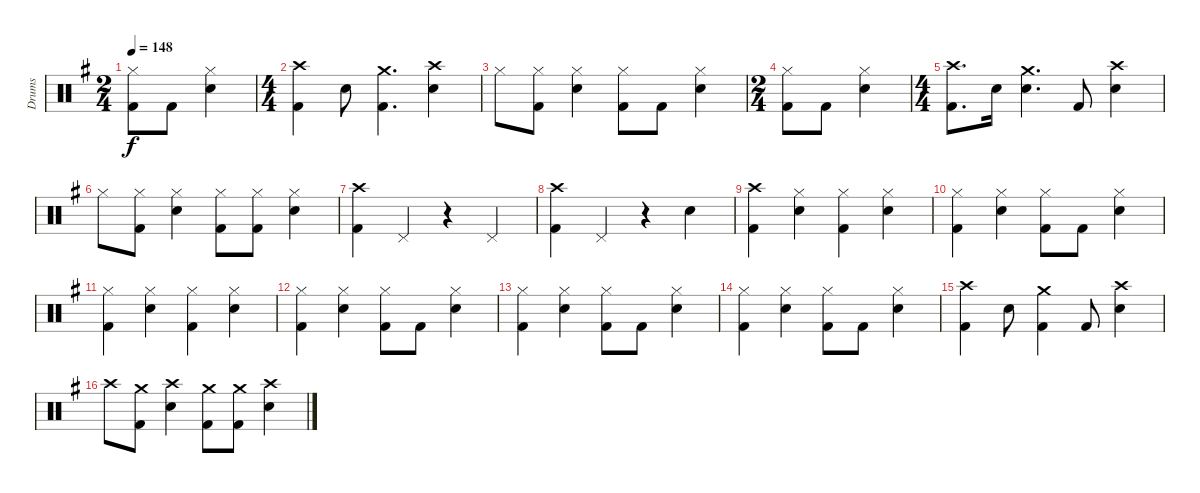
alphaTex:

\track ("Drums" "Drums") {instrument percussion}
\staff {score}
\articulation defaults
\ts (2 4)
\tempo 148
\clef neutral
\ks eminor
("Kick (hit) 2" "Hi-Hat (closed)").8{dy f} "Kick (hit) 2".8 ("Snare (hit) 2" "Hi-Hat (closed)").4 |
\ts (4 4)
("Kick (hit) 2" "Crash high (hit)").4 "Snare (hit) 2".8 ("Kick (hit) 2" "Crash medium (hit)").4{d} ("Snare (hit) 2" "Crash high (hit)").4 |
"Hi-Hat (closed)".8 ("Kick (hit) 2" "Hi-Hat (closed)").8 ("Snare (hit) 2" "Hi-Hat (closed)").4 ("Kick (hit) 2" "Hi-Hat (closed)").8 "Kick (hit) 2".8 ("Snare (hit) 2" "Hi-Hat (closed)").4 |
\ts (2 4)
("Kick (hit) 2" "Hi-Hat (closed)").8 "Kick (hit) 2".8 ("Snare (hit) 2" "Hi-Hat (closed)").4 |
\ts (4 4)
("Kick (hit) 2" "Crash high (hit)").8{d} "Snare (hit) 2".16 ("Snare (hit) 2" "Crash medium (hit)").4{d} "Kick (hit) 2".8 ("Snare (hit) 2" "Crash high (hit)").4 |
"Hi-Hat (closed)".8 ("Kick (hit) 2" "Hi-Hat (closed)").8 ("Snare (hit) 2" "Hi-Hat (closed)").4 ("Kick (hit) 2" "Hi-Hat (closed)").8 ("Kick (hit) 2" "Hi-Hat (closed)").8 ("Snare (hit) 2" "Hi-Hat (closed)").4 |
("Kick (hit) 2" "Crash high (hit)").4 "Pedal Hi-Hat (hit)".4 r.4 "Pedal Hi-Hat (hit)".4 |
("Kick (hit) 2" "Crash high (hit)").4 "Pedal Hi-Hat (hit)".4 r.4 "Snare (hit) 2".4 |
("Kick (hit) 2" "Crash high (hit)").4 ("Snare (hit) 2" "Hi-Hat (closed)").4 ("Kick (hit) 2" "Hi-Hat (closed)").4 ("Snare (hit) 2" "Hi-Hat (closed)").4 |
("Kick (hit) 2" "Hi-Hat (closed)").4 ("Snare (hit) 2" "Hi-Hat (closed)").4 ("Kick (hit) 2" "Hi-Hat (closed)").8 "Kick (hit) 2".8 ("Snare (hit) 2" "Hi-Hat (closed)").4 |
("Kick (hit) 2" "Hi-Hat (closed)").4 ("Snare (hit) 2" "Hi-Hat (closed)").4 ("Kick (hit) 2" "Hi-Hat (closed)").4 ("Snare (hit) 2" "Hi-Hat (closed)").4 |
("Kick (hit) 2" "Hi-Hat (closed)").4 ("Snare (hit) 2" "Hi-Hat (closed)").4 ("Kick (hit) 2" "Hi-Hat (closed)").8 "Kick (hit) 2".8 ("Snare (hit) 2" "Hi-Hat (closed)").4 |
("Kick (hit) 2" "Hi-Hat (closed)").4 ("Snare (hit) 2" "Hi-Hat (closed)").4 ("Kick (hit) 2" "Hi-Hat (closed)").8 "Kick (hit) 2".8 ("Snare (hit) 2" "Hi-Hat (closed)").4 |
("Kick (hit) 2" "Hi-Hat (closed)").4 ("Snare (hit) 2" "Hi-Hat (closed)").4 ("Kick (hit) 2" "Hi-Hat (closed)").8 "Kick (hit) 2".8 ("Snare (hit) 2" "Hi-Hat (closed)").4 |
("Kick (hit) 2" "Crash high (hit)").4 "Snare (hit) 2".8 ("Kick (hit) 2" "Crash medium (hit)").4 "Kick (hit) 2".8 ("Snare (hit) 2" "Crash high (hit)").4 |
"Crash high (hit)".8 ("Kick (hit) 2" "Crash medium (hit)").8 ("Snare (hit) 2" "Crash high (hit)").4 ("Kick (hit) 2" "Crash medium (hit)").8 ("Kick (hit) 2" "Crash medium (hit)").8 ("Snare (hit) 2" "Crash high (hit)").4
